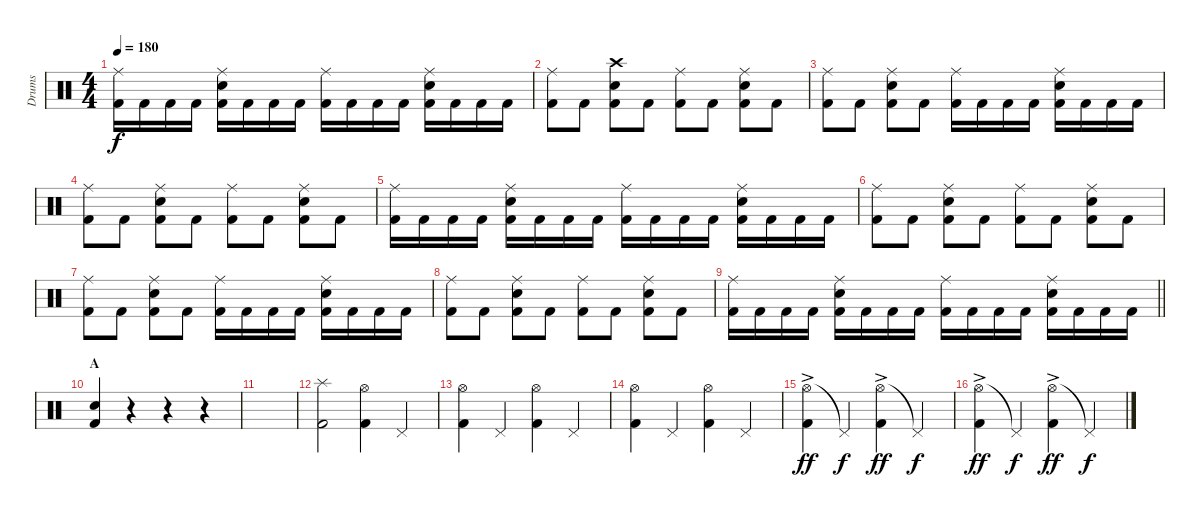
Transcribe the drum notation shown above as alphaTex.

\track ("Drums" "Drums") {instrument percussion}
\staff {score}
\articulation defaults
\ts (4 4)
\tempo 180
\clef neutral
\ks c
("Ride (middle)" "Kick (hit) 2").16{dy f} "Kick (hit) 2".16 "Kick (hit) 2".16 "Kick (hit) 2".16 ("Ride (middle)" "Electric Snare (hit)" "Kick (hit) 2").16 "Kick (hit) 2".16 "Kick (hit) 2".16 "Kick (hit) 2".16 ("Ride (middle)" "Kick (hit) 2").16 "Kick (hit) 2".16 "Kick (hit) 2".16 "Kick (hit) 2".16 ("Ride (middle)" "Electric Snare (hit)" "Kick (hit) 2").16 "Kick (hit) 2".16 "Kick (hit) 2".16 "Kick (hit) 2".16 |
("Ride (middle)" "Kick (hit) 2").8 "Kick (hit) 2".8 ("Crash high (hit)" "Electric Snare (hit)" "Kick (hit) 2").8 "Kick (hit) 2".8 ("Ride (middle)" "Kick (hit) 2").8 "Kick (hit) 2".8 ("Ride (middle)" "Electric Snare (hit)" "Kick (hit) 2").8 "Kick (hit) 2".8 |
("Ride (middle)" "Kick (hit) 2").8 "Kick (hit) 2".8 ("Ride (middle)" "Electric Snare (hit)" "Kick (hit) 2").8 "Kick (hit) 2".8 ("Ride (middle)" "Kick (hit) 2").16 "Kick (hit) 2".16 "Kick (hit) 2".16 "Kick (hit) 2".16 ("Ride (middle)" "Electric Snare (hit)" "Kick (hit) 2").16 "Kick (hit) 2".16 "Kick (hit) 2".16 "Kick (hit) 2".16 |
("Ride (middle)" "Kick (hit) 2").8 "Kick (hit) 2".8 ("Ride (middle)" "Electric Snare (hit)" "Kick (hit) 2").8 "Kick (hit) 2".8 ("Ride (middle)" "Kick (hit) 2").8 "Kick (hit) 2".8 ("Ride (middle)" "Electric Snare (hit)" "Kick (hit) 2").8 "Kick (hit) 2".8 |
("Ride (middle)" "Kick (hit) 2").16 "Kick (hit) 2".16 "Kick (hit) 2".16 "Kick (hit) 2".16 ("Ride (middle)" "Electric Snare (hit)" "Kick (hit) 2").16 "Kick (hit) 2".16 "Kick (hit) 2".16 "Kick (hit) 2".16 ("Ride (middle)" "Kick (hit) 2").16 "Kick (hit) 2".16 "Kick (hit) 2".16 "Kick (hit) 2".16 ("Ride (middle)" "Electric Snare (hit)" "Kick (hit) 2").16 "Kick (hit) 2".16 "Kick (hit) 2".16 "Kick (hit) 2".16 |
("Ride (middle)" "Kick (hit) 2").8 "Kick (hit) 2".8 ("Ride (middle)" "Electric Snare (hit)" "Kick (hit) 2").8 "Kick (hit) 2".8 ("Ride (middle)" "Kick (hit) 2").8 "Kick (hit) 2".8 ("Ride (middle)" "Electric Snare (hit)" "Kick (hit) 2").8 "Kick (hit) 2".8 |
("Ride (middle)" "Kick (hit) 2").8 "Kick (hit) 2".8 ("Ride (middle)" "Electric Snare (hit)" "Kick (hit) 2").8 "Kick (hit) 2".8 ("Ride (middle)" "Kick (hit) 2").16 "Kick (hit) 2".16 "Kick (hit) 2".16 "Kick (hit) 2".16 ("Ride (middle)" "Electric Snare (hit)" "Kick (hit) 2").16 "Kick (hit) 2".16 "Kick (hit) 2".16 "Kick (hit) 2".16 |
("Ride (middle)" "Kick (hit) 2").8 "Kick (hit) 2".8 ("Ride (middle)" "Electric Snare (hit)" "Kick (hit) 2").8 "Kick (hit) 2".8 ("Ride (middle)" "Kick (hit) 2").8 "Kick (hit) 2".8 ("Ride (middle)" "Electric Snare (hit)" "Kick (hit) 2").8 "Kick (hit) 2".8 |
\barLineRight lightlight
("Ride (middle)" "Kick (hit) 2").16 "Kick (hit) 2".16 "Kick (hit) 2".16 "Kick (hit) 2".16 ("Ride (middle)" "Electric Snare (hit)" "Kick (hit) 2").16 "Kick (hit) 2".16 "Kick (hit) 2".16 "Kick (hit) 2".16 ("Ride (middle)" "Kick (hit) 2").16 "Kick (hit) 2".16 "Kick (hit) 2".16 "Kick (hit) 2".16 ("Ride (middle)" "Electric Snare (hit)" "Kick (hit) 2").16 "Kick (hit) 2".16 "Kick (hit) 2".16 "Kick (hit) 2".16 |
\section ("" "A")
("Electric Snare (hit)" "Kick (hit) 2").4 r.4 r.4 r.4 |
|
("Splash (hit)" "Kick (hit) 2").2 ("Hi-Hat (open)" "Kick (hit) 2").4 "Pedal Hi-Hat (hit)".4 |
("Hi-Hat (open)" "Kick (hit) 2").4 "Pedal Hi-Hat (hit)".4 ("Hi-Hat (open)" "Kick (hit) 2").4 "Pedal Hi-Hat (hit)".4 |
("Hi-Hat (open)" "Kick (hit) 2").4 "Pedal Hi-Hat (hit)".4 ("Hi-Hat (open)" "Kick (hit) 2").4 "Pedal Hi-Hat (hit)".4 |
("Hi-Hat (open)"{ac} "Kick (hit) 2").4{dy ff} "Pedal Hi-Hat (hit)"{t}.4{dy f} ("Hi-Hat (open)"{ac} "Kick (hit) 2").4{dy ff} "Pedal Hi-Hat (hit)"{t}.4{dy f} |
("Hi-Hat (open)"{ac} "Kick (hit) 2").4{dy ff} "Pedal Hi-Hat (hit)"{t}.4{dy f} ("Hi-Hat (open)"{ac} "Kick (hit) 2").4{dy ff} "Pedal Hi-Hat (hit)"{t}.4{dy f}
